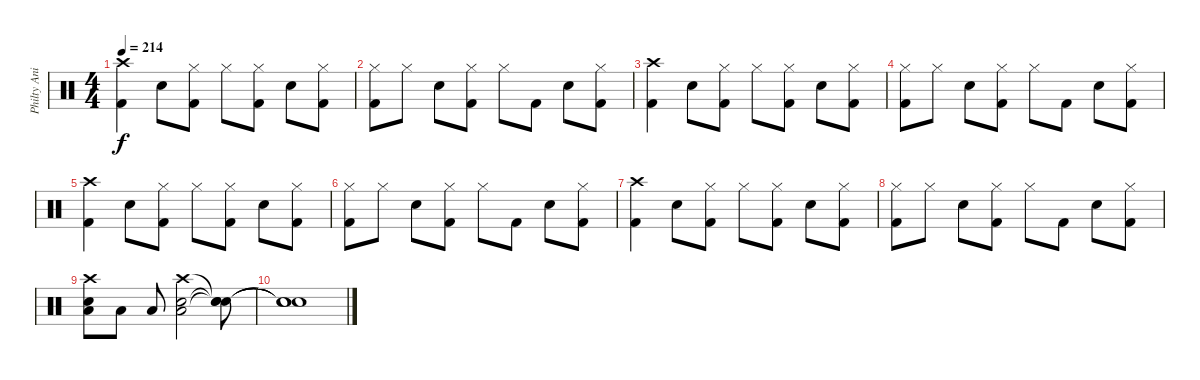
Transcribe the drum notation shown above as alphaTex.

\track ("Philty Animal" "Philty Ani") {instrument percussion}
\staff {score}
\articulation defaults
\ts (4 4)
\tempo 214
\clef neutral
\ks c
("Kick (hit) 2" "Crash high (hit)").4{dy f} "Snare (hit) 2".8 ("Kick (hit) 2" "Hi-Hat (closed)").8 "Hi-Hat (closed)".8 ("Kick (hit) 2" "Hi-Hat (closed)").8 "Snare (hit) 2".8 ("Kick (hit) 2" "Hi-Hat (closed)").8 |
("Kick (hit) 2" "Hi-Hat (closed)").8 "Hi-Hat (closed)".8 "Snare (hit) 2".8 ("Hi-Hat (closed)" "Kick (hit) 2").8 "Hi-Hat (closed)".8 "Kick (hit) 2".8 "Snare (hit) 2".8 ("Kick (hit) 2" "Hi-Hat (closed)").8 |
("Kick (hit) 2" "Crash high (hit)").4 "Snare (hit) 2".8 ("Kick (hit) 2" "Hi-Hat (closed)").8 "Hi-Hat (closed)".8 ("Kick (hit) 2" "Hi-Hat (closed)").8 "Snare (hit) 2".8 ("Kick (hit) 2" "Hi-Hat (closed)").8 |
("Kick (hit) 2" "Hi-Hat (closed)").8 "Hi-Hat (closed)".8 "Snare (hit) 2".8 ("Hi-Hat (closed)" "Kick (hit) 2").8 "Hi-Hat (closed)".8 "Kick (hit) 2".8 "Snare (hit) 2".8 ("Kick (hit) 2" "Hi-Hat (closed)").8 |
("Kick (hit) 2" "Crash high (hit)").4 "Snare (hit) 2".8 ("Kick (hit) 2" "Hi-Hat (closed)").8 "Hi-Hat (closed)".8 ("Kick (hit) 2" "Hi-Hat (closed)").8 "Snare (hit) 2".8 ("Kick (hit) 2" "Hi-Hat (closed)").8 |
("Kick (hit) 2" "Hi-Hat (closed)").8 "Hi-Hat (closed)".8 "Snare (hit) 2".8 ("Hi-Hat (closed)" "Kick (hit) 2").8 "Hi-Hat (closed)".8 "Kick (hit) 2".8 "Snare (hit) 2".8 ("Kick (hit) 2" "Hi-Hat (closed)").8 |
("Kick (hit) 2" "Crash high (hit)").4 "Snare (hit) 2".8 ("Kick (hit) 2" "Hi-Hat (closed)").8 "Hi-Hat (closed)".8 ("Kick (hit) 2" "Hi-Hat (closed)").8 "Snare (hit) 2".8 ("Kick (hit) 2" "Hi-Hat (closed)").8 |
("Kick (hit) 2" "Hi-Hat (closed)").8 "Hi-Hat (closed)".8 "Snare (hit) 2".8 ("Hi-Hat (closed)" "Kick (hit) 2").8 "Hi-Hat (closed)".8 "Kick (hit) 2".8 "Snare (hit) 2".8 ("Kick (hit) 2" "Hi-Hat (closed)").8 |
("Crash high (hit)" "Low Tom (hit)" "Snare (hit) 2").8 "Low Tom (hit)".8 "Low Tom (hit)".8 ("Crash high (hit)" "Low Tom (hit)" "Snare (hit) 2").2 ("Snare (hit)"{t} "Snare (hit)"{t} "Snare (hit)"{t}).8 |
("Snare (hit)"{t} "Snare (hit)"{t} "Snare (hit)"{t}).1
